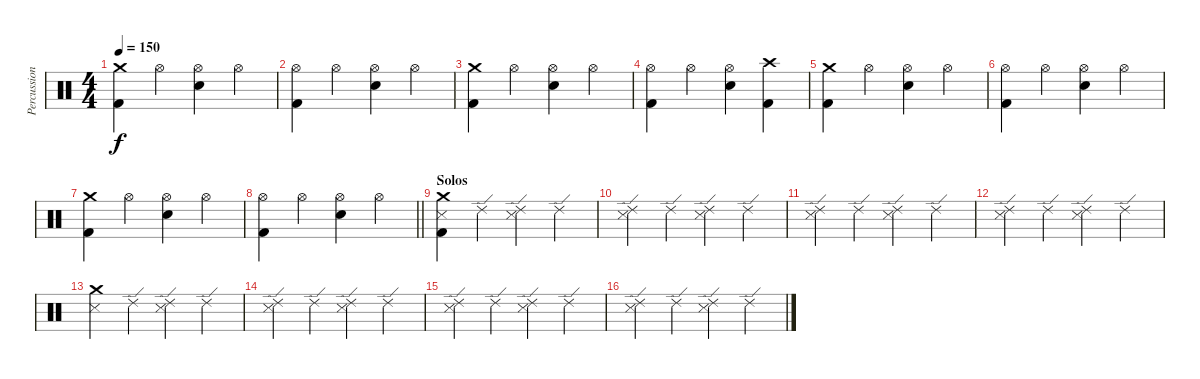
\track ("Percussion" "Percussion") {instrument percussion}
\staff {score}
\articulation defaults
\ts (4 4)
\tempo 150
\clef neutral
\ks c
("Crash medium (hit)" "Kick (hit) 2").4{dy f} "Hi-Hat (open)".4 ("Hi-Hat (open)" "Electric Snare (hit)").4 "Hi-Hat (open)".4 |
("Hi-Hat (open)" "Kick (hit) 2").4 "Hi-Hat (open)".4 ("Hi-Hat (open)" "Electric Snare (hit)").4 "Hi-Hat (open)".4 |
("Crash medium (hit)" "Kick (hit) 2").4 "Hi-Hat (open)".4 ("Hi-Hat (open)" "Electric Snare (hit)").4 "Hi-Hat (open)".4 |
("Hi-Hat (open)" "Kick (hit) 2").4 "Hi-Hat (open)".4 ("Hi-Hat (open)" "Electric Snare (hit)").4 ("Crash high (hit)" "Kick (hit) 2").4 |
("Crash medium (hit)" "Kick (hit) 2").4 "Hi-Hat (open)".4 ("Hi-Hat (open)" "Electric Snare (hit)").4 "Hi-Hat (open)".4 |
("Hi-Hat (open)" "Kick (hit) 2").4 "Hi-Hat (open)".4 ("Hi-Hat (open)" "Electric Snare (hit)").4 "Hi-Hat (open)".4 |
("Crash medium (hit)" "Kick (hit) 2").4 "Hi-Hat (open)".4 ("Hi-Hat (open)" "Electric Snare (hit)").4 "Hi-Hat (open)".4 |
\barLineRight lightlight
("Hi-Hat (open)" "Kick (hit) 2").4 "Hi-Hat (open)".4 ("Hi-Hat (open)" "Electric Snare (hit)").4 "Hi-Hat (open)".4 |
\section ("" "Solos")
("Crash medium (hit)" "Snare (side stick) 3" "Kick (hit) 2").4 "Ride (edge) 2".4 ("Ride (edge) 2" "Snare (side stick) 3").4 "Ride (edge) 2".4 |
("Ride (edge) 2" "Snare (side stick) 3").4 "Ride (edge) 2".4 ("Ride (edge) 2" "Snare (side stick) 3").4 "Ride (edge) 2".4 |
("Ride (edge) 2" "Snare (side stick) 3").4 "Ride (edge) 2".4 ("Ride (edge) 2" "Snare (side stick) 3").4 "Ride (edge) 2".4 |
("Ride (edge) 2" "Snare (side stick) 3").4 "Ride (edge) 2".4 ("Ride (edge) 2" "Snare (side stick) 3").4 "Ride (edge) 2".4 |
("Crash medium (hit)" "Snare (side stick) 3").4 "Ride (edge) 2".4 ("Ride (edge) 2" "Snare (side stick) 3").4 "Ride (edge) 2".4 |
("Ride (edge) 2" "Snare (side stick) 3").4 "Ride (edge) 2".4 ("Ride (edge) 2" "Snare (side stick) 3").4 "Ride (edge) 2".4 |
("Ride (edge) 2" "Snare (side stick) 3").4 "Ride (edge) 2".4 ("Ride (edge) 2" "Snare (side stick) 3").4 "Ride (edge) 2".4 |
("Ride (edge) 2" "Snare (side stick) 3").4 "Ride (edge) 2".4 ("Ride (edge) 2" "Snare (side stick) 3").4 "Ride (edge) 2".4
